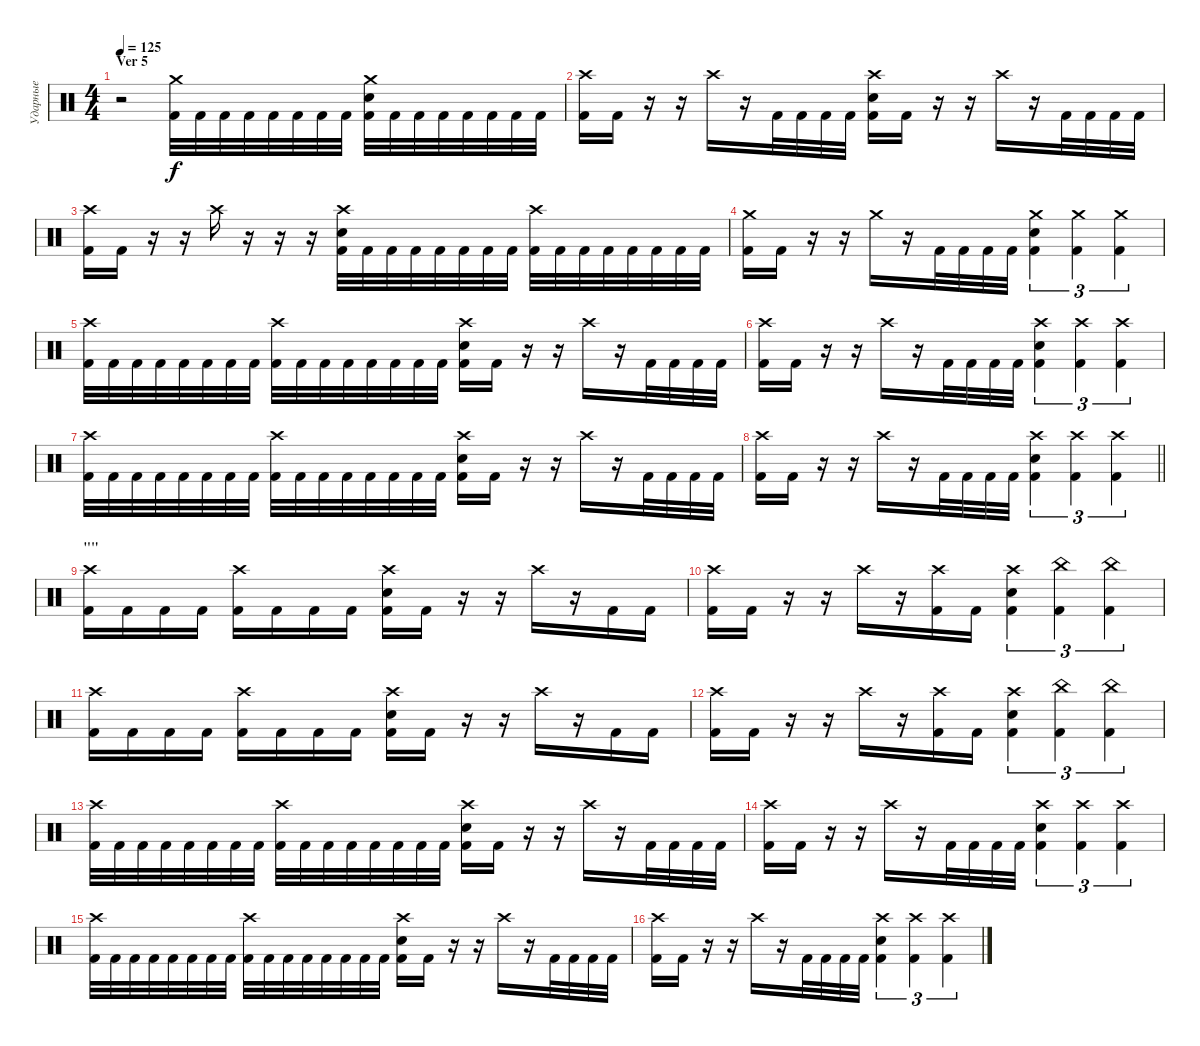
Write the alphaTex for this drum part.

\track ("Ударные" "Ударные") {instrument percussion}
\staff {score}
\articulation defaults
\ts (4 4)
\section ("" "Ver 5")
\tempo 125
\clef neutral
\ks c
r.2{dy f} ("Crash medium (hit)" "Kick (hit) 2").32 "Kick (hit) 2".32 "Kick (hit) 2".32 "Kick (hit) 2".32 "Kick (hit) 2".32 "Kick (hit) 2".32 "Kick (hit) 2".32 "Kick (hit) 2".32 ("Crash medium (hit)" "Electric Snare (hit)" "Kick (hit) 2").32 "Kick (hit) 2".32 "Kick (hit) 2".32 "Kick (hit) 2".32 "Kick (hit) 2".32 "Kick (hit) 2".32 "Kick (hit) 2".32 "Kick (hit) 2".32 |
("Crash high (hit)" "Kick (hit) 2").16 "Kick (hit) 2".16 r.16 r.16 "Crash high (hit)".16 r.16 "Kick (hit) 2".32 "Kick (hit) 2".32 "Kick (hit) 2".32 "Kick (hit) 2".32 ("Crash high (hit)" "Electric Snare (hit)" "Kick (hit) 2").16 "Kick (hit) 2".16 r.16 r.16 "Crash high (hit)".16 r.16 "Kick (hit) 2".32 "Kick (hit) 2".32 "Kick (hit) 2".32 "Kick (hit) 2".32 |
("Crash high (hit)" "Kick (hit) 2").16 "Kick (hit) 2".16 r.16 r.16 "Crash high (hit)".16 r.16 r.16 r.16 ("Crash high (hit)" "Electric Snare (hit)" "Kick (hit) 2").32 "Kick (hit) 2".32 "Kick (hit) 2".32 "Kick (hit) 2".32 "Kick (hit) 2".32 "Kick (hit) 2".32 "Kick (hit) 2".32 "Kick (hit) 2".32 ("Crash high (hit)" "Kick (hit) 2").32 "Kick (hit) 2".32 "Kick (hit) 2".32 "Kick (hit) 2".32 "Kick (hit) 2".32 "Kick (hit) 2".32 "Kick (hit) 2".32 "Kick (hit) 2".32 |
("Crash medium (hit)" "Kick (hit) 2").16 "Kick (hit) 2".16 r.16 r.16 "Crash medium (hit)".16 r.16 "Kick (hit) 2".32 "Kick (hit) 2".32 "Kick (hit) 2".32 "Kick (hit) 2".32 ("Crash medium (hit)" "Electric Snare (hit)" "Kick (hit) 2").4{tu (3 2)} ("Crash medium (hit)" "Kick (hit) 2").4{tu (3 2)} ("Crash medium (hit)" "Kick (hit) 2").4{tu (3 2)} |
("Crash high (hit)" "Kick (hit) 2").32 "Kick (hit) 2".32 "Kick (hit) 2".32 "Kick (hit) 2".32 "Kick (hit) 2".32 "Kick (hit) 2".32 "Kick (hit) 2".32 "Kick (hit) 2".32 ("Crash high (hit)" "Kick (hit) 2").32 "Kick (hit) 2".32 "Kick (hit) 2".32 "Kick (hit) 2".32 "Kick (hit) 2".32 "Kick (hit) 2".32 "Kick (hit) 2".32 "Kick (hit) 2".32 ("Crash high (hit)" "Electric Snare (hit)" "Kick (hit) 2").16 "Kick (hit) 2".16 r.16 r.16 "Crash high (hit)".16 r.16 "Kick (hit) 2".32 "Kick (hit) 2".32 "Kick (hit) 2".32 "Kick (hit) 2".32 |
("Crash high (hit)" "Kick (hit) 2").16 "Kick (hit) 2".16 r.16 r.16 "Crash high (hit)".16 r.16 "Kick (hit) 2".32 "Kick (hit) 2".32 "Kick (hit) 2".32 "Kick (hit) 2".32 ("Crash high (hit)" "Electric Snare (hit)" "Kick (hit) 2").4{tu (3 2)} ("Crash high (hit)" "Kick (hit) 2").4{tu (3 2)} ("Crash high (hit)" "Kick (hit) 2").4{tu (3 2)} |
("Crash high (hit)" "Kick (hit) 2").32 "Kick (hit) 2".32 "Kick (hit) 2".32 "Kick (hit) 2".32 "Kick (hit) 2".32 "Kick (hit) 2".32 "Kick (hit) 2".32 "Kick (hit) 2".32 ("Crash high (hit)" "Kick (hit) 2").32 "Kick (hit) 2".32 "Kick (hit) 2".32 "Kick (hit) 2".32 "Kick (hit) 2".32 "Kick (hit) 2".32 "Kick (hit) 2".32 "Kick (hit) 2".32 ("Crash high (hit)" "Electric Snare (hit)" "Kick (hit) 2").16 "Kick (hit) 2".16 r.16 r.16 "Crash high (hit)".16 r.16 "Kick (hit) 2".32 "Kick (hit) 2".32 "Kick (hit) 2".32 "Kick (hit) 2".32 |
\barLineRight lightlight
("Crash high (hit)" "Kick (hit) 2").16 "Kick (hit) 2".16 r.16 r.16 "Crash high (hit)".16 r.16 "Kick (hit) 2".32 "Kick (hit) 2".32 "Kick (hit) 2".32 "Kick (hit) 2".32 ("Crash high (hit)" "Electric Snare (hit)" "Kick (hit) 2").4{tu (3 2)} ("Crash high (hit)" "Kick (hit) 2").4{tu (3 2)} ("Crash high (hit)" "Kick (hit) 2").4{tu (3 2)} |
\section ("" "\"\"")
("Crash high (hit)" "Kick (hit) 2").16 "Kick (hit) 2".16 "Kick (hit) 2".16 "Kick (hit) 2".16 ("Crash high (hit)" "Kick (hit) 2").16 "Kick (hit) 2".16 "Kick (hit) 2".16 "Kick (hit) 2".16 ("Crash high (hit)" "Electric Snare (hit)" "Kick (hit) 2").16 "Kick (hit) 2".16 r.16 r.16 "Crash high (hit)".16 r.16 "Kick (hit) 2".16 "Kick (hit) 2".16 |
("Crash high (hit)" "Kick (hit) 2").16 "Kick (hit) 2".16 r.16 r.16 "Crash high (hit)".16 r.16 ("Crash high (hit)" "Kick (hit) 2").16 "Kick (hit) 2".16 ("Crash high (hit)" "Electric Snare (hit)" "Kick (hit) 2").4{tu (3 2)} ("China (hit)" "Kick (hit) 2").4{tu (3 2)} ("China (hit)" "Kick (hit) 2").4{tu (3 2)} |
("Crash high (hit)" "Kick (hit) 2").16 "Kick (hit) 2".16 "Kick (hit) 2".16 "Kick (hit) 2".16 ("Crash high (hit)" "Kick (hit) 2").16 "Kick (hit) 2".16 "Kick (hit) 2".16 "Kick (hit) 2".16 ("Crash high (hit)" "Electric Snare (hit)" "Kick (hit) 2").16 "Kick (hit) 2".16 r.16 r.16 "Crash high (hit)".16 r.16 "Kick (hit) 2".16 "Kick (hit) 2".16 |
("Crash high (hit)" "Kick (hit) 2").16 "Kick (hit) 2".16 r.16 r.16 "Crash high (hit)".16 r.16 ("Crash high (hit)" "Kick (hit) 2").16 "Kick (hit) 2".16 ("Crash high (hit)" "Electric Snare (hit)" "Kick (hit) 2").4{tu (3 2)} ("China (hit)" "Kick (hit) 2").4{tu (3 2)} ("China (hit)" "Kick (hit) 2").4{tu (3 2)} |
("Crash high (hit)" "Kick (hit) 2").32 "Kick (hit) 2".32 "Kick (hit) 2".32 "Kick (hit) 2".32 "Kick (hit) 2".32 "Kick (hit) 2".32 "Kick (hit) 2".32 "Kick (hit) 2".32 ("Crash high (hit)" "Kick (hit) 2").32 "Kick (hit) 2".32 "Kick (hit) 2".32 "Kick (hit) 2".32 "Kick (hit) 2".32 "Kick (hit) 2".32 "Kick (hit) 2".32 "Kick (hit) 2".32 ("Crash high (hit)" "Electric Snare (hit)" "Kick (hit) 2").16 "Kick (hit) 2".16 r.16 r.16 "Crash high (hit)".16 r.16 "Kick (hit) 2".32 "Kick (hit) 2".32 "Kick (hit) 2".32 "Kick (hit) 2".32 |
("Crash high (hit)" "Kick (hit) 2").16 "Kick (hit) 2".16 r.16 r.16 "Crash high (hit)".16 r.16 "Kick (hit) 2".32 "Kick (hit) 2".32 "Kick (hit) 2".32 "Kick (hit) 2".32 ("Crash high (hit)" "Electric Snare (hit)" "Kick (hit) 2").4{tu (3 2)} ("Crash high (hit)" "Kick (hit) 2").4{tu (3 2)} ("Crash high (hit)" "Kick (hit) 2").4{tu (3 2)} |
("Crash high (hit)" "Kick (hit) 2").32 "Kick (hit) 2".32 "Kick (hit) 2".32 "Kick (hit) 2".32 "Kick (hit) 2".32 "Kick (hit) 2".32 "Kick (hit) 2".32 "Kick (hit) 2".32 ("Crash high (hit)" "Kick (hit) 2").32 "Kick (hit) 2".32 "Kick (hit) 2".32 "Kick (hit) 2".32 "Kick (hit) 2".32 "Kick (hit) 2".32 "Kick (hit) 2".32 "Kick (hit) 2".32 ("Crash high (hit)" "Electric Snare (hit)" "Kick (hit) 2").16 "Kick (hit) 2".16 r.16 r.16 "Crash high (hit)".16 r.16 "Kick (hit) 2".32 "Kick (hit) 2".32 "Kick (hit) 2".32 "Kick (hit) 2".32 |
("Crash high (hit)" "Kick (hit) 2").16 "Kick (hit) 2".16 r.16 r.16 "Crash high (hit)".16 r.16 "Kick (hit) 2".32 "Kick (hit) 2".32 "Kick (hit) 2".32 "Kick (hit) 2".32 ("Crash high (hit)" "Electric Snare (hit)" "Kick (hit) 2").4{tu (3 2)} ("Crash high (hit)" "Kick (hit) 2").4{tu (3 2)} ("Crash high (hit)" "Kick (hit) 2").4{tu (3 2)}
